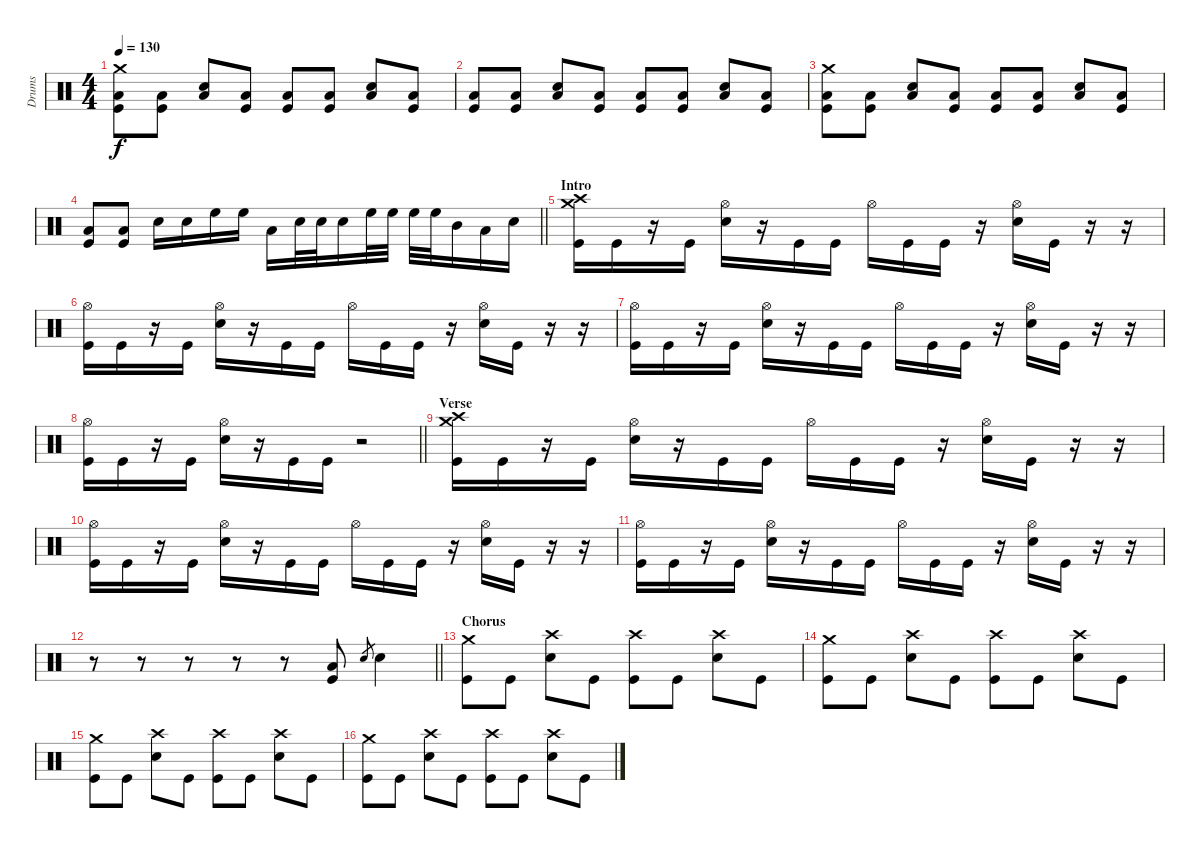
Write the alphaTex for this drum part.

\track ("Drums" "Drums") {instrument percussion}
\staff {score}
\articulation defaults
\ts (4 4)
\tempo 130
\clef neutral
\ks c
("Kick (hit)" "Low Floor Tom (hit)" "Crash medium (hit)").8{dy f} ("Kick (hit)" "Low Floor Tom (hit)").8 ("Snare (hit) 2" "Low Floor Tom (hit)").8 ("Kick (hit)" "Low Floor Tom (hit)").8 ("Kick (hit)" "Low Floor Tom (hit)").8 ("Kick (hit)" "Low Floor Tom (hit)").8 ("Snare (hit) 2" "Low Floor Tom (hit)").8 ("Kick (hit)" "Low Floor Tom (hit)").8 |
("Kick (hit)" "Low Floor Tom (hit)").8 ("Kick (hit)" "Low Floor Tom (hit)").8 ("Snare (hit) 2" "Low Floor Tom (hit)").8 ("Kick (hit)" "Low Floor Tom (hit)").8 ("Kick (hit)" "Low Floor Tom (hit)").8 ("Kick (hit)" "Low Floor Tom (hit)").8 ("Snare (hit) 2" "Low Floor Tom (hit)").8 ("Kick (hit)" "Low Floor Tom (hit)").8 |
("Kick (hit)" "Low Floor Tom (hit)" "Crash medium (hit)").8 ("Kick (hit)" "Low Floor Tom (hit)").8 ("Snare (hit) 2" "Low Floor Tom (hit)").8 ("Kick (hit)" "Low Floor Tom (hit)").8 ("Kick (hit)" "Low Floor Tom (hit)").8 ("Kick (hit)" "Low Floor Tom (hit)").8 ("Snare (hit) 2" "Low Floor Tom (hit)").8 ("Kick (hit)" "Low Floor Tom (hit)").8 |
\barLineRight lightlight
("Kick (hit)" "Low Floor Tom (hit)").8 ("Kick (hit)" "Low Floor Tom (hit)").8 "Snare (hit) 2".16 "Snare (hit) 2".16 "High Floor Tom (hit)".16 "High Floor Tom (hit)".16 "Low Tom (hit)".16 "Snare (hit) 2".32 "Snare (hit) 2".32 "Snare (hit) 2".16 "High Floor Tom (hit)".32 "High Floor Tom (hit)".32 "High Floor Tom (hit)".32 "High Floor Tom (hit)".32 "Mid Tom (hit)".16 "Low Tom (hit)".16 "Snare (hit) 2".16 |
\section ("" "Intro")
("Kick (hit)" "Crash high (hit)" "Crash medium (hit)").16 "Kick (hit)".16 r.16 "Kick (hit)".16 ("Snare (hit) 2" "Hi-Hat (open)").16 r.16 "Kick (hit)".16 "Kick (hit)".16 "Hi-Hat (open)".16 "Kick (hit)".16 "Kick (hit)".16 r.16 ("Snare (hit) 2" "Hi-Hat (open)").16 "Kick (hit)".16 r.16 r.16 |
("Kick (hit)" "Hi-Hat (open)").16 "Kick (hit)".16 r.16 "Kick (hit)".16 ("Snare (hit) 2" "Hi-Hat (open)").16 r.16 "Kick (hit)".16 "Kick (hit)".16 "Hi-Hat (open)".16 "Kick (hit)".16 "Kick (hit)".16 r.16 ("Snare (hit) 2" "Hi-Hat (open)").16 "Kick (hit)".16 r.16 r.16 |
("Kick (hit)" "Hi-Hat (open)").16 "Kick (hit)".16 r.16 "Kick (hit)".16 ("Snare (hit) 2" "Hi-Hat (open)").16 r.16 "Kick (hit)".16 "Kick (hit)".16 "Hi-Hat (open)".16 "Kick (hit)".16 "Kick (hit)".16 r.16 ("Snare (hit) 2" "Hi-Hat (open)").16 "Kick (hit)".16 r.16 r.16 |
\barLineRight lightlight
("Kick (hit)" "Hi-Hat (open)").16 "Kick (hit)".16 r.16 "Kick (hit)".16 ("Snare (hit) 2" "Hi-Hat (open)").16 r.16 "Kick (hit)".16 "Kick (hit)".16 r.2 |
\section ("" "Verse")
("Kick (hit)" "Crash high (hit)" "Crash medium (hit)").16 "Kick (hit)".16 r.16 "Kick (hit)".16 ("Snare (hit) 2" "Hi-Hat (open)").16 r.16 "Kick (hit)".16 "Kick (hit)".16 "Hi-Hat (open)".16 "Kick (hit)".16 "Kick (hit)".16 r.16 ("Snare (hit) 2" "Hi-Hat (open)").16 "Kick (hit)".16 r.16 r.16 |
("Kick (hit)" "Hi-Hat (open)").16 "Kick (hit)".16 r.16 "Kick (hit)".16 ("Snare (hit) 2" "Hi-Hat (open)").16 r.16 "Kick (hit)".16 "Kick (hit)".16 "Hi-Hat (open)".16 "Kick (hit)".16 "Kick (hit)".16 r.16 ("Snare (hit) 2" "Hi-Hat (open)").16 "Kick (hit)".16 r.16 r.16 |
("Kick (hit)" "Hi-Hat (open)").16 "Kick (hit)".16 r.16 "Kick (hit)".16 ("Snare (hit) 2" "Hi-Hat (open)").16 r.16 "Kick (hit)".16 "Kick (hit)".16 "Hi-Hat (open)".16 "Kick (hit)".16 "Kick (hit)".16 r.16 ("Snare (hit) 2" "Hi-Hat (open)").16 "Kick (hit)".16 r.16 r.16 |
\barLineRight lightlight
r.8 r.8 r.8 r.8 r.8 ("Kick (hit)" "Low Floor Tom (hit)").8 "Snare (hit) 2".8{gr} "Snare (hit) 2".4 |
\section ("" "Chorus")
("Kick (hit)" "Crash medium (hit)").8 "Kick (hit)".8 ("Snare (hit) 2" "Crash high (hit)").8 "Kick (hit)".8 ("Kick (hit)" "Crash high (hit)").8 "Kick (hit)".8 ("Snare (hit) 2" "Crash high (hit)").8 "Kick (hit)".8 |
("Kick (hit)" "Crash medium (hit)").8 "Kick (hit)".8 ("Snare (hit) 2" "Crash high (hit)").8 "Kick (hit)".8 ("Kick (hit)" "Crash high (hit)").8 "Kick (hit)".8 ("Snare (hit) 2" "Crash high (hit)").8 "Kick (hit)".8 |
("Kick (hit)" "Crash medium (hit)").8 "Kick (hit)".8 ("Snare (hit) 2" "Crash high (hit)").8 "Kick (hit)".8 ("Kick (hit)" "Crash high (hit)").8 "Kick (hit)".8 ("Snare (hit) 2" "Crash high (hit)").8 "Kick (hit)".8 |
("Kick (hit)" "Crash medium (hit)").8 "Kick (hit)".8 ("Snare (hit) 2" "Crash high (hit)").8 "Kick (hit)".8 ("Kick (hit)" "Crash high (hit)").8 "Kick (hit)".8 ("Snare (hit) 2" "Crash high (hit)").8 "Kick (hit)".8
